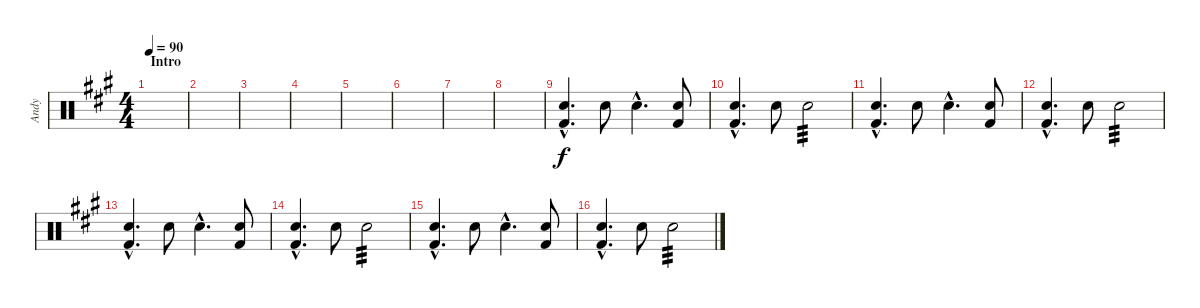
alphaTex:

\track ("Andy" "Andy") {instrument percussion}
\staff {score}
\articulation defaults
\ts (4 4)
\section ("" "Intro")
\tempo 90
\clef neutral
\ks f#minor
|
|
|
|
|
|
|
|
("Snare (hit) 2"{hac} "Kick (hit) 2"{hac}).4{d} "Snare (hit) 2".8 "Snare (hit) 2"{hac}.4{d} ("Snare (hit) 2" "Kick (hit) 2").8 |
("Snare (hit) 2"{hac} "Kick (hit) 2"{hac}).4{d} "Snare (hit) 2".8 "Snare (hit) 2".2{tp 3} |
("Snare (hit) 2"{hac} "Kick (hit) 2"{hac}).4{d} "Snare (hit) 2".8 "Snare (hit) 2"{hac}.4{d} ("Snare (hit) 2" "Kick (hit) 2").8 |
("Snare (hit) 2"{hac} "Kick (hit) 2"{hac}).4{d} "Snare (hit) 2".8 "Snare (hit) 2".2{tp 3} |
("Snare (hit) 2"{hac} "Kick (hit) 2"{hac}).4{d} "Snare (hit) 2".8 "Snare (hit) 2"{hac}.4{d} ("Snare (hit) 2" "Kick (hit) 2").8 |
("Snare (hit) 2"{hac} "Kick (hit) 2"{hac}).4{d} "Snare (hit) 2".8 "Snare (hit) 2".2{tp 3} |
("Snare (hit) 2"{hac} "Kick (hit) 2"{hac}).4{d} "Snare (hit) 2".8 "Snare (hit) 2"{hac}.4{d} ("Snare (hit) 2" "Kick (hit) 2").8 |
("Snare (hit) 2"{hac} "Kick (hit) 2"{hac}).4{d} "Snare (hit) 2".8 "Snare (hit) 2".2{tp 3}
